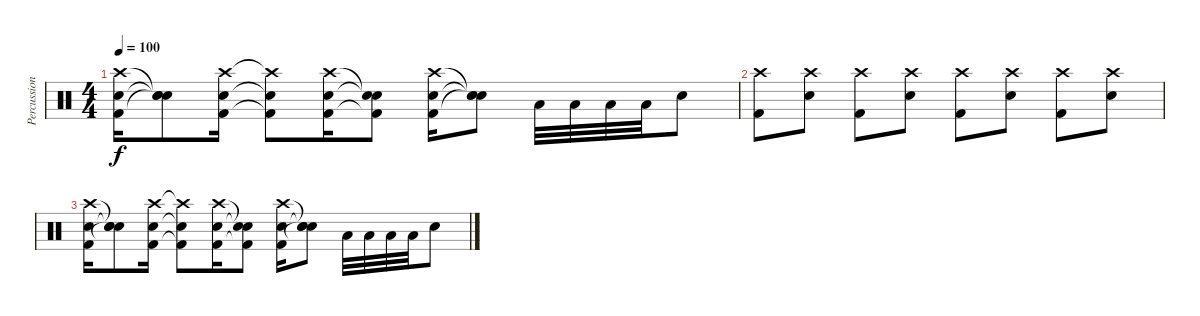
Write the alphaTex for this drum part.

\track ("Percussion" "Percussion") {instrument percussion}
\staff {score}
\articulation defaults
\ts (4 4)
\tempo 100
\clef neutral
\ks c
("Crash high (hit)" "Snare (hit) 2" "Kick (hit) 2").16{dy f} ("Snare (hit)"{t} "Snare (hit)"{t} "Snare (hit)"{t}).8 ("Crash high (hit)" "Snare (hit) 2" "Kick (hit) 2").16 ("Crash high (hit)"{t} "Snare (hit) 2"{t} "Kick (hit) 2"{t}).8 ("Crash high (hit)" "Snare (hit) 2" "Kick (hit) 2").16 ("Snare (hit)"{t} "Snare (hit)"{t} "Kick (hit) 2"{t}).8 ("Crash high (hit)" "Snare (hit) 2" "Kick (hit) 2").16 ("Snare (hit)"{t} "Snare (hit)"{t} "Snare (hit)"{t}).8 "Low Tom (hit)".32 "Low Tom (hit)".32 "Low Tom (hit)".32 "Low Tom (hit)".32 "Snare (hit) 2".8 |
("Crash high (hit)" "Kick (hit) 2").8 ("Crash high (hit)" "Snare (hit) 2").8 ("Crash high (hit)" "Kick (hit) 2").8 ("Crash high (hit)" "Snare (hit) 2").8 ("Crash high (hit)" "Kick (hit) 2").8 ("Crash high (hit)" "Snare (hit) 2").8 ("Crash high (hit)" "Kick (hit) 2").8 ("Crash high (hit)" "Snare (hit) 2").8 |
("Crash high (hit)" "Snare (hit) 2" "Kick (hit) 2").16 ("Snare (hit)"{t} "Snare (hit)"{t} "Snare (hit)"{t}).8 ("Crash high (hit)" "Snare (hit) 2" "Kick (hit) 2").16 ("Crash high (hit)"{t} "Snare (hit) 2"{t} "Kick (hit) 2"{t}).8 ("Crash high (hit)" "Snare (hit) 2" "Kick (hit) 2").16 ("Snare (hit)"{t} "Snare (hit)"{t} "Kick (hit) 2"{t}).8 ("Crash high (hit)" "Snare (hit) 2" "Kick (hit) 2").16 ("Snare (hit)"{t} "Snare (hit)"{t} "Snare (hit)"{t}).8 "Low Tom (hit)".32 "Low Tom (hit)".32 "Low Tom (hit)".32 "Low Tom (hit)".32 "Snare (hit) 2".8
